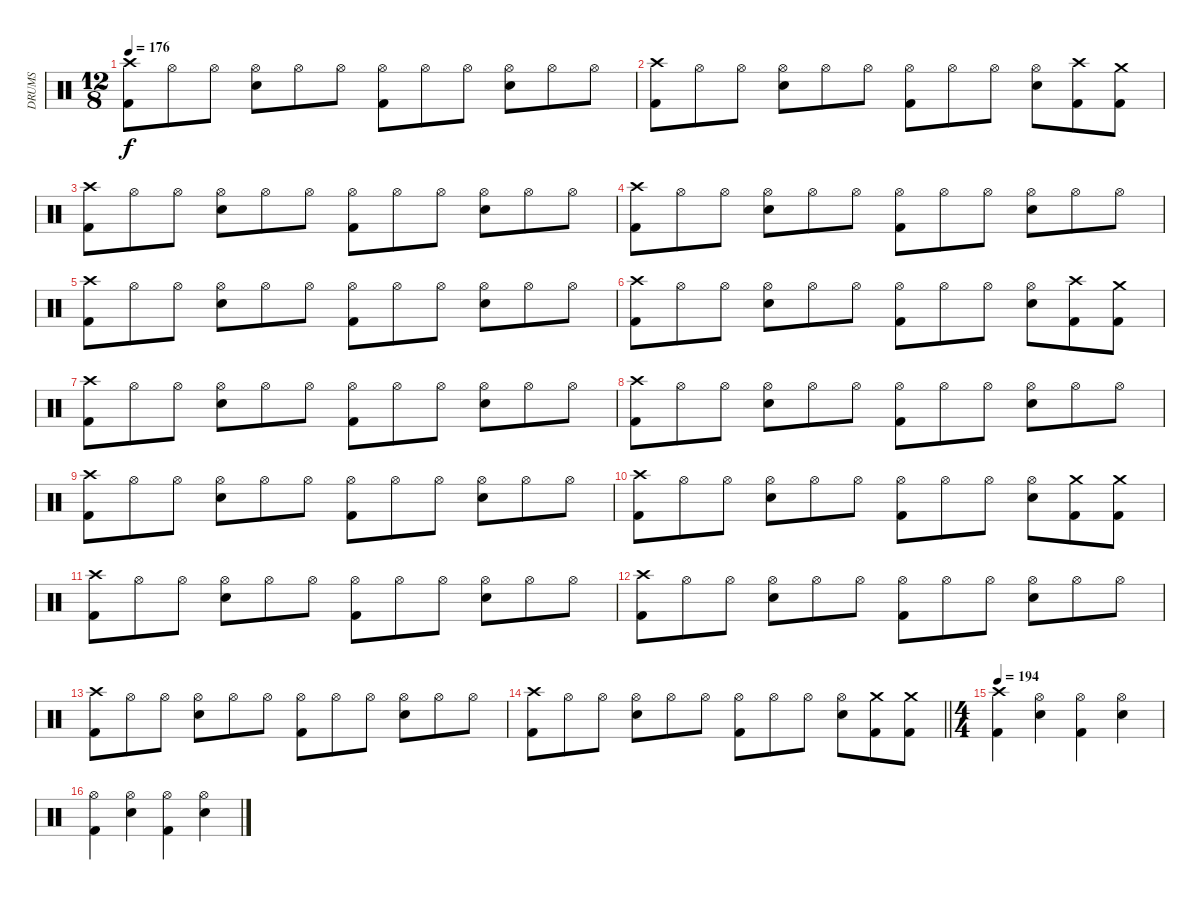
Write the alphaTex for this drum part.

\track ("DRUMS" "DRUMS") {instrument percussion}
\staff {score}
\articulation defaults
\ts (12 8)
\tempo 176
\clef neutral
\ks c
("Crash high (hit)" "Kick (hit) 2").8{dy f} "Hi-Hat (open)".8 "Hi-Hat (open)".8 ("Hi-Hat (open)" "Snare (hit) 2").8 "Hi-Hat (open)".8 "Hi-Hat (open)".8 ("Hi-Hat (open)" "Kick (hit) 2").8 "Hi-Hat (open)".8 "Hi-Hat (open)".8 ("Hi-Hat (open)" "Snare (hit) 2").8 "Hi-Hat (open)".8 "Hi-Hat (open)".8 |
("Crash high (hit)" "Kick (hit) 2").8 "Hi-Hat (open)".8 "Hi-Hat (open)".8 ("Hi-Hat (open)" "Snare (hit) 2").8 "Hi-Hat (open)".8 "Hi-Hat (open)".8 ("Hi-Hat (open)" "Kick (hit) 2").8 "Hi-Hat (open)".8 "Hi-Hat (open)".8 ("Hi-Hat (open)" "Snare (hit) 2").8 ("Crash high (hit)" "Kick (hit) 2").8 ("Crash medium (hit)" "Kick (hit) 2").8 |
("Crash high (hit)" "Kick (hit) 2").8 "Hi-Hat (open)".8 "Hi-Hat (open)".8 ("Hi-Hat (open)" "Snare (hit) 2").8 "Hi-Hat (open)".8 "Hi-Hat (open)".8 ("Hi-Hat (open)" "Kick (hit) 2").8 "Hi-Hat (open)".8 "Hi-Hat (open)".8 ("Hi-Hat (open)" "Snare (hit) 2").8 "Hi-Hat (open)".8 "Hi-Hat (open)".8 |
("Crash high (hit)" "Kick (hit) 2").8 "Hi-Hat (open)".8 "Hi-Hat (open)".8 ("Hi-Hat (open)" "Snare (hit) 2").8 "Hi-Hat (open)".8 "Hi-Hat (open)".8 ("Hi-Hat (open)" "Kick (hit) 2").8 "Hi-Hat (open)".8 "Hi-Hat (open)".8 ("Hi-Hat (open)" "Snare (hit) 2").8 "Hi-Hat (open)".8 "Hi-Hat (open)".8 |
("Crash high (hit)" "Kick (hit) 2").8 "Hi-Hat (open)".8 "Hi-Hat (open)".8 ("Hi-Hat (open)" "Snare (hit) 2").8 "Hi-Hat (open)".8 "Hi-Hat (open)".8 ("Hi-Hat (open)" "Kick (hit) 2").8 "Hi-Hat (open)".8 "Hi-Hat (open)".8 ("Hi-Hat (open)" "Snare (hit) 2").8 "Hi-Hat (open)".8 "Hi-Hat (open)".8 |
("Crash high (hit)" "Kick (hit) 2").8 "Hi-Hat (open)".8 "Hi-Hat (open)".8 ("Hi-Hat (open)" "Snare (hit) 2").8 "Hi-Hat (open)".8 "Hi-Hat (open)".8 ("Hi-Hat (open)" "Kick (hit) 2").8 "Hi-Hat (open)".8 "Hi-Hat (open)".8 ("Hi-Hat (open)" "Snare (hit) 2").8 ("Crash high (hit)" "Kick (hit) 2").8 ("Crash medium (hit)" "Kick (hit) 2").8 |
("Crash high (hit)" "Kick (hit) 2").8 "Hi-Hat (open)".8 "Hi-Hat (open)".8 ("Hi-Hat (open)" "Snare (hit) 2").8 "Hi-Hat (open)".8 "Hi-Hat (open)".8 ("Hi-Hat (open)" "Kick (hit) 2").8 "Hi-Hat (open)".8 "Hi-Hat (open)".8 ("Hi-Hat (open)" "Snare (hit) 2").8 "Hi-Hat (open)".8 "Hi-Hat (open)".8 |
("Crash high (hit)" "Kick (hit) 2").8 "Hi-Hat (open)".8 "Hi-Hat (open)".8 ("Hi-Hat (open)" "Snare (hit) 2").8 "Hi-Hat (open)".8 "Hi-Hat (open)".8 ("Hi-Hat (open)" "Kick (hit) 2").8 "Hi-Hat (open)".8 "Hi-Hat (open)".8 ("Hi-Hat (open)" "Snare (hit) 2").8 "Hi-Hat (open)".8 "Hi-Hat (open)".8 |
("Crash high (hit)" "Kick (hit) 2").8 "Hi-Hat (open)".8 "Hi-Hat (open)".8 ("Hi-Hat (open)" "Snare (hit) 2").8 "Hi-Hat (open)".8 "Hi-Hat (open)".8 ("Hi-Hat (open)" "Kick (hit) 2").8 "Hi-Hat (open)".8 "Hi-Hat (open)".8 ("Hi-Hat (open)" "Snare (hit) 2").8 "Hi-Hat (open)".8 "Hi-Hat (open)".8 |
("Crash high (hit)" "Kick (hit) 2").8 "Hi-Hat (open)".8 "Hi-Hat (open)".8 ("Hi-Hat (open)" "Snare (hit) 2").8 "Hi-Hat (open)".8 "Hi-Hat (open)".8 ("Hi-Hat (open)" "Kick (hit) 2").8 "Hi-Hat (open)".8 "Hi-Hat (open)".8 ("Hi-Hat (open)" "Snare (hit) 2").8 ("Crash medium (hit)" "Kick (hit) 2").8 ("Crash medium (hit)" "Kick (hit) 2").8 |
("Crash high (hit)" "Kick (hit) 2").8 "Hi-Hat (open)".8 "Hi-Hat (open)".8 ("Hi-Hat (open)" "Snare (hit) 2").8 "Hi-Hat (open)".8 "Hi-Hat (open)".8 ("Hi-Hat (open)" "Kick (hit) 2").8 "Hi-Hat (open)".8 "Hi-Hat (open)".8 ("Hi-Hat (open)" "Snare (hit) 2").8 "Hi-Hat (open)".8 "Hi-Hat (open)".8 |
("Crash high (hit)" "Kick (hit) 2").8 "Hi-Hat (open)".8 "Hi-Hat (open)".8 ("Hi-Hat (open)" "Snare (hit) 2").8 "Hi-Hat (open)".8 "Hi-Hat (open)".8 ("Hi-Hat (open)" "Kick (hit) 2").8 "Hi-Hat (open)".8 "Hi-Hat (open)".8 ("Hi-Hat (open)" "Snare (hit) 2").8 "Hi-Hat (open)".8 "Hi-Hat (open)".8 |
("Crash high (hit)" "Kick (hit) 2").8 "Hi-Hat (open)".8 "Hi-Hat (open)".8 ("Hi-Hat (open)" "Snare (hit) 2").8 "Hi-Hat (open)".8 "Hi-Hat (open)".8 ("Hi-Hat (open)" "Kick (hit) 2").8 "Hi-Hat (open)".8 "Hi-Hat (open)".8 ("Hi-Hat (open)" "Snare (hit) 2").8 "Hi-Hat (open)".8 "Hi-Hat (open)".8 |
\barLineRight lightlight
("Crash high (hit)" "Kick (hit) 2").8 "Hi-Hat (open)".8 "Hi-Hat (open)".8 ("Hi-Hat (open)" "Snare (hit) 2").8 "Hi-Hat (open)".8 "Hi-Hat (open)".8 ("Hi-Hat (open)" "Kick (hit) 2").8 "Hi-Hat (open)".8 "Hi-Hat (open)".8 ("Hi-Hat (open)" "Snare (hit) 2").8 ("Crash medium (hit)" "Kick (hit) 2").8 ("Crash medium (hit)" "Kick (hit) 2").8 |
\ts (4 4)
\tempo 194
("Crash high (hit)" "Kick (hit) 2").4 ("Hi-Hat (open)" "Snare (hit) 2").4 ("Hi-Hat (open)" "Kick (hit) 2").4 ("Hi-Hat (open)" "Snare (hit) 2").4 |
("Hi-Hat (open)" "Kick (hit) 2").4 ("Hi-Hat (open)" "Snare (hit) 2").4 ("Hi-Hat (open)" "Kick (hit) 2").4 ("Hi-Hat (open)" "Snare (hit) 2").4
